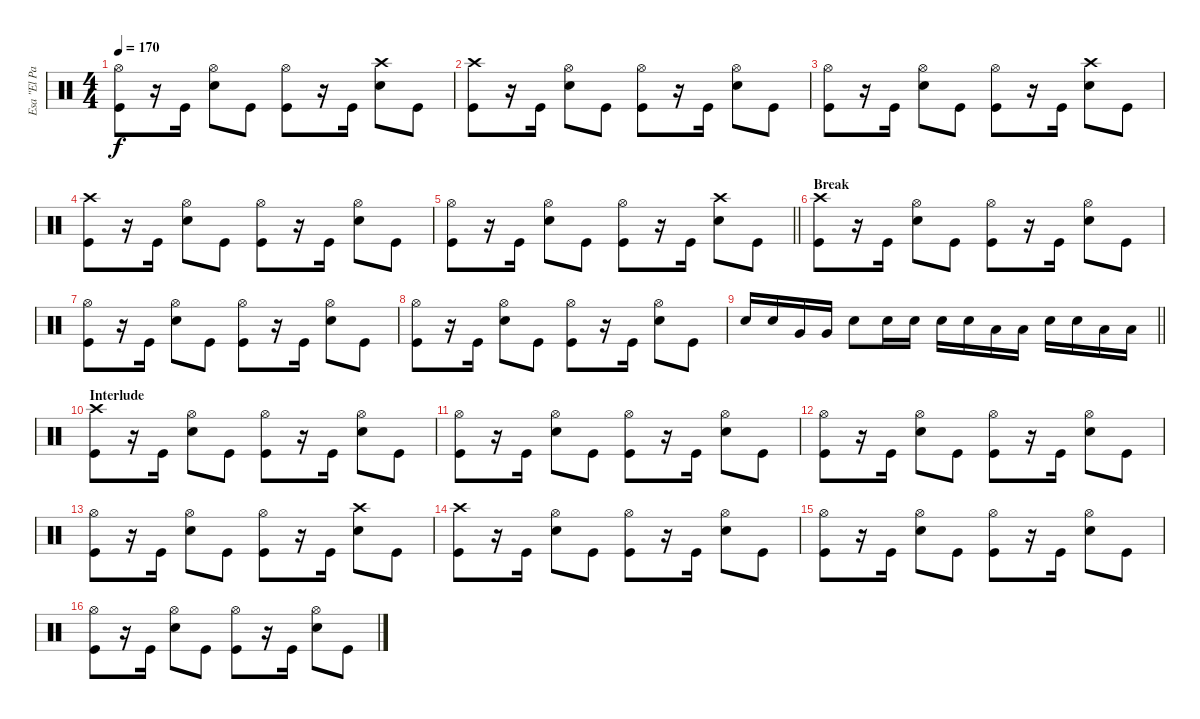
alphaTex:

\track ("Esa \"El Pasaderia\" Palosaari" "Esa \"El Pa") {instrument percussion}
\staff {score}
\articulation defaults
\ts (4 4)
\tempo 170
\clef neutral
\ks c
("Hi-Hat (open)" "Kick (hit)").8{dy f} r.16 "Kick (hit)".16 ("Hi-Hat (open)" "Snare (hit) 2").8 "Kick (hit)".8 ("Hi-Hat (open)" "Kick (hit)").8 r.16 "Kick (hit)".16 ("Crash high (hit)" "Snare (hit) 2").8 "Kick (hit)".8 |
("Crash high (hit)" "Kick (hit)").8 r.16 "Kick (hit)".16 ("Hi-Hat (open)" "Snare (hit) 2").8 "Kick (hit)".8 ("Hi-Hat (open)" "Kick (hit)").8 r.16 "Kick (hit)".16 ("Hi-Hat (open)" "Snare (hit) 2").8 "Kick (hit)".8 |
("Hi-Hat (open)" "Kick (hit)").8 r.16 "Kick (hit)".16 ("Hi-Hat (open)" "Snare (hit) 2").8 "Kick (hit)".8 ("Hi-Hat (open)" "Kick (hit)").8 r.16 "Kick (hit)".16 ("Crash high (hit)" "Snare (hit) 2").8 "Kick (hit)".8 |
("Crash high (hit)" "Kick (hit)").8 r.16 "Kick (hit)".16 ("Hi-Hat (open)" "Snare (hit) 2").8 "Kick (hit)".8 ("Hi-Hat (open)" "Kick (hit)").8 r.16 "Kick (hit)".16 ("Hi-Hat (open)" "Snare (hit) 2").8 "Kick (hit)".8 |
\barLineRight lightlight
("Hi-Hat (open)" "Kick (hit)").8 r.16 "Kick (hit)".16 ("Hi-Hat (open)" "Snare (hit) 2").8 "Kick (hit)".8 ("Hi-Hat (open)" "Kick (hit)").8 r.16 "Kick (hit)".16 ("Crash high (hit)" "Snare (hit) 2").8 "Kick (hit)".8 |
\section ("" "Break")
("Crash high (hit)" "Kick (hit)").8 r.16 "Kick (hit)".16 ("Hi-Hat (open)" "Snare (hit) 2").8 "Kick (hit)".8 ("Hi-Hat (open)" "Kick (hit)").8 r.16 "Kick (hit)".16 ("Hi-Hat (open)" "Snare (hit) 2").8 "Kick (hit)".8 |
("Hi-Hat (open)" "Kick (hit)").8 r.16 "Kick (hit)".16 ("Hi-Hat (open)" "Snare (hit) 2").8 "Kick (hit)".8 ("Hi-Hat (open)" "Kick (hit)").8 r.16 "Kick (hit)".16 ("Hi-Hat (open)" "Snare (hit) 2").8 "Kick (hit)".8 |
("Hi-Hat (open)" "Kick (hit)").8 r.16 "Kick (hit)".16 ("Hi-Hat (open)" "Snare (hit) 2").8 "Kick (hit)".8 ("Hi-Hat (open)" "Kick (hit)").8 r.16 "Kick (hit)".16 ("Hi-Hat (open)" "Snare (hit) 2").8 "Kick (hit)".8 |
\barLineRight lightlight "Snare (hit) 2".16 "Snare (hit) 2".16 "Very Low Tom (hit)".16 "Very Low Tom (hit)".16 "Snare (hit) 2".8 "Snare (hit) 2".16 "Snare (hit) 2".16 "Snare (hit) 2".16 "Snare (hit) 2".16 "Low Tom (hit)".16 "Low Tom (hit)".16 "Snare (hit) 2".16 "Snare (hit) 2".16 "Low Tom (hit)".16 "Low Tom (hit)".16
|
\section ("" "Interlude")
("Crash high (hit)" "Kick (hit)").8 r.16 "Kick (hit)".16 ("Hi-Hat (open)" "Snare (hit) 2").8 "Kick (hit)".8 ("Hi-Hat (open)" "Kick (hit)").8 r.16 "Kick (hit)".16 ("Hi-Hat (open)" "Snare (hit) 2").8 "Kick (hit)".8 |
("Hi-Hat (open)" "Kick (hit)").8 r.16 "Kick (hit)".16 ("Hi-Hat (open)" "Snare (hit) 2").8 "Kick (hit)".8 ("Hi-Hat (open)" "Kick (hit)").8 r.16 "Kick (hit)".16 ("Hi-Hat (open)" "Snare (hit) 2").8 "Kick (hit)".8 |
("Hi-Hat (open)" "Kick (hit)").8 r.16 "Kick (hit)".16 ("Hi-Hat (open)" "Snare (hit) 2").8 "Kick (hit)".8 ("Hi-Hat (open)" "Kick (hit)").8 r.16 "Kick (hit)".16 ("Hi-Hat (open)" "Snare (hit) 2").8 "Kick (hit)".8 |
("Hi-Hat (open)" "Kick (hit)").8 r.16 "Kick (hit)".16 ("Hi-Hat (open)" "Snare (hit) 2").8 "Kick (hit)".8 ("Hi-Hat (open)" "Kick (hit)").8 r.16 "Kick (hit)".16 ("Crash high (hit)" "Snare (hit) 2").8 "Kick (hit)".8 |
("Crash high (hit)" "Kick (hit)").8 r.16 "Kick (hit)".16 ("Hi-Hat (open)" "Snare (hit) 2").8 "Kick (hit)".8 ("Hi-Hat (open)" "Kick (hit)").8 r.16 "Kick (hit)".16 ("Hi-Hat (open)" "Snare (hit) 2").8 "Kick (hit)".8 |
("Hi-Hat (open)" "Kick (hit)").8 r.16 "Kick (hit)".16 ("Hi-Hat (open)" "Snare (hit) 2").8 "Kick (hit)".8 ("Hi-Hat (open)" "Kick (hit)").8 r.16 "Kick (hit)".16 ("Hi-Hat (open)" "Snare (hit) 2").8 "Kick (hit)".8 |
("Hi-Hat (open)" "Kick (hit)").8 r.16 "Kick (hit)".16 ("Hi-Hat (open)" "Snare (hit) 2").8 "Kick (hit)".8 ("Hi-Hat (open)" "Kick (hit)").8 r.16 "Kick (hit)".16 ("Hi-Hat (open)" "Snare (hit) 2").8 "Kick (hit)".8
